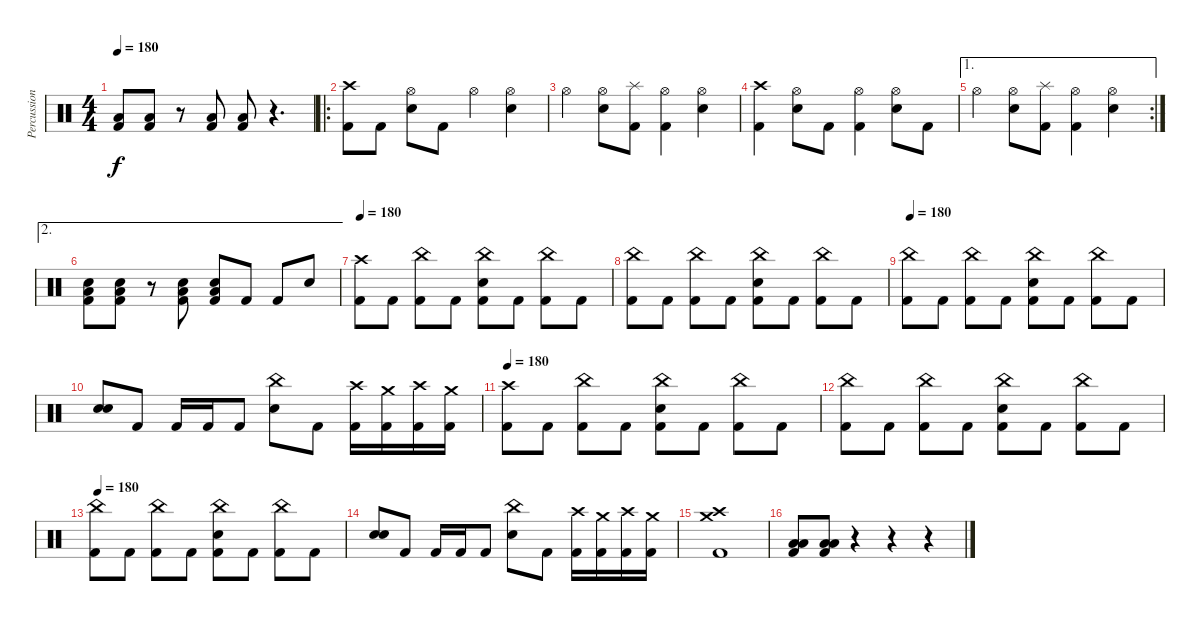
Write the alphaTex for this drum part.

\track ("Percussions" "Percussion") {instrument percussion}
\staff {score}
\articulation defaults
\ts (4 4)
\tempo 180
\clef neutral
\ks c
("Low Floor Tom (hit)" "Kick (hit) 2").8{dy f} ("Low Floor Tom (hit)" "Kick (hit) 2").8 r.8 ("Low Floor Tom (hit)" "Kick (hit) 2").8 ("Low Floor Tom (hit)" "Kick (hit) 2").8 r.4{d} |
\ro
("Crash high (hit)" "Kick (hit) 2").8 "Kick (hit) 2".8 ("Hi-Hat (open)" "Snare (hit) 2").8 "Kick (hit) 2".8 "Hi-Hat (open)".4 ("Hi-Hat (open)" "Snare (hit) 2").4 |
"Hi-Hat (open)".4 ("Hi-Hat (open)" "Snare (hit) 2").8 ("Splash (hit)" "Kick (hit) 2").8 ("Hi-Hat (open)" "Kick (hit) 2").4 ("Hi-Hat (open)" "Snare (hit) 2").4 |
("Crash high (hit)" "Kick (hit) 2").4 ("Hi-Hat (open)" "Snare (hit) 2").8 "Kick (hit) 2".8 ("Hi-Hat (open)" "Kick (hit) 2").4 ("Hi-Hat (open)" "Snare (hit) 2").8 "Kick (hit) 2".8 |
\ae 1
\rc 2 "Hi-Hat (open)".4
("Hi-Hat (open)" "Snare (hit) 2").8 ("Splash (hit)" "Kick (hit) 2").8 ("Hi-Hat (open)" "Kick (hit) 2").4 ("Hi-Hat (open)" "Snare (hit) 2").4 |
\ae 2
("Snare (hit) 2" "Low Floor Tom (hit)" "Kick (hit) 2").8 ("Snare (hit) 2" "Low Floor Tom (hit)" "Kick (hit) 2").8 r.8 ("Snare (hit) 2" "Low Floor Tom (hit)" "Kick (hit) 2").8 ("Snare (hit) 2" "Low Floor Tom (hit)" "Kick (hit) 2").8 "Kick (hit) 2".8 "Kick (hit) 2".8 "Snare (hit) 2".8 |
\tempo 180
("Crash high (hit)" "Kick (hit) 2").8 "Kick (hit) 2".8 ("China (hit)" "Kick (hit) 2").8 "Kick (hit) 2".8 ("China (hit)" "Snare (hit) 2" "Kick (hit) 2").8 "Kick (hit) 2".8 ("China (hit)" "Kick (hit) 2").8 "Kick (hit) 2".8 |
("China (hit)" "Kick (hit) 2").8 "Kick (hit) 2".8 ("China (hit)" "Kick (hit) 2").8 "Kick (hit) 2".8 ("China (hit)" "Snare (hit) 2" "Kick (hit) 2").8 "Kick (hit) 2".8 ("China (hit)" "Kick (hit) 2").8 "Kick (hit) 2".8 |
\tempo 180
("China (hit)" "Kick (hit) 2").8 "Kick (hit) 2".8 ("China (hit)" "Kick (hit) 2").8 "Kick (hit) 2".8 ("China (hit)" "Snare (hit) 2" "Kick (hit) 2").8 "Kick (hit) 2".8 ("China (hit)" "Kick (hit) 2").8 "Kick (hit) 2".8 |
("Snare (hit) 2" "Snare (hit) 2").8{bd 120} "Kick (hit) 2".8 "Kick (hit) 2".16 "Kick (hit) 2".16 "Kick (hit) 2".8 ("China (hit)" "Snare (hit) 2").8 "Kick (hit) 2".8 ("Crash high (hit)" "Kick (hit) 2").16 ("Crash medium (hit)" "Kick (hit) 2").16 ("Crash high (hit)" "Kick (hit) 2").16 ("Crash medium (hit)" "Kick (hit) 2").16 |
\tempo 180
("Crash high (hit)" "Kick (hit) 2").8 "Kick (hit) 2".8 ("China (hit)" "Kick (hit) 2").8 "Kick (hit) 2".8 ("China (hit)" "Snare (hit) 2" "Kick (hit) 2").8 "Kick (hit) 2".8 ("China (hit)" "Kick (hit) 2").8 "Kick (hit) 2".8 |
("China (hit)" "Kick (hit) 2").8 "Kick (hit) 2".8 ("China (hit)" "Kick (hit) 2").8 "Kick (hit) 2".8 ("China (hit)" "Snare (hit) 2" "Kick (hit) 2").8 "Kick (hit) 2".8 ("China (hit)" "Kick (hit) 2").8 "Kick (hit) 2".8 |
\tempo 180
("China (hit)" "Kick (hit) 2").8 "Kick (hit) 2".8 ("China (hit)" "Kick (hit) 2").8 "Kick (hit) 2".8 ("China (hit)" "Snare (hit) 2" "Kick (hit) 2").8 "Kick (hit) 2".8 ("China (hit)" "Kick (hit) 2").8 "Kick (hit) 2".8 |
("Snare (hit) 2" "Snare (hit) 2").8{bd 120} "Kick (hit) 2".8 "Kick (hit) 2".16 "Kick (hit) 2".16 "Kick (hit) 2".8 ("China (hit)" "Snare (hit) 2").8 "Kick (hit) 2".8 ("Crash high (hit)" "Kick (hit) 2").16 ("Crash medium (hit)" "Kick (hit) 2").16 ("Crash high (hit)" "Kick (hit) 2").16 ("Crash medium (hit)" "Kick (hit) 2").16 |
("Crash high (hit)" "Crash medium (hit)" "Kick (hit) 2").1 |
("Low Floor Tom (hit)" "Low Floor Tom (hit)" "Kick (hit) 2").8 ("Low Floor Tom (hit)" "Low Floor Tom (hit)" "Kick (hit) 2").8 r.4 r.4 r.4
